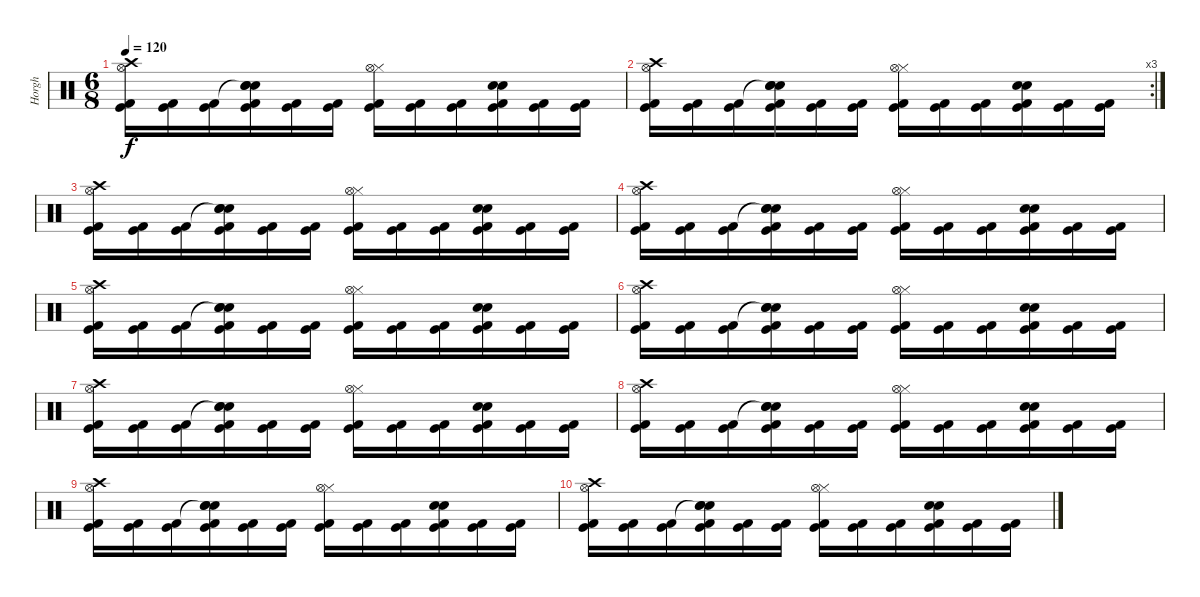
\track ("Horgh" "Horgh") {instrument percussion}
\staff {score}
\articulation defaults
\ts (6 8)
\tempo 120
\clef neutral
\ks c
("Crash high (hit)" "Hi-Hat (open)" "Kick (hit) 2" "Kick (hit)").16{dy f} ("Kick (hit) 2" "Kick (hit)").16 ("Kick (hit) 2" "Kick (hit)").16 ("Snare (hit)"{t} "Snare (hit) 2" "Electric Snare (hit)" "Kick (hit) 2" "Kick (hit)").16 ("Kick (hit) 2" "Kick (hit)").16 ("Kick (hit) 2" "Kick (hit)").16 ("Hi-Hat (closed)" "Hi-Hat (open)" "Kick (hit) 2" "Kick (hit)").16 ("Kick (hit) 2" "Kick (hit)").16 ("Kick (hit) 2" "Kick (hit)").16 ("Snare (hit) 2" "Electric Snare (hit)" "Kick (hit) 2" "Kick (hit)").16 ("Kick (hit) 2" "Kick (hit)").16 ("Kick (hit) 2" "Kick (hit)").16 |
\rc 3
("Crash high (hit)" "Hi-Hat (open)" "Kick (hit) 2" "Kick (hit)").16 ("Kick (hit) 2" "Kick (hit)").16 ("Kick (hit) 2" "Kick (hit)").16 ("Snare (hit)"{t} "Snare (hit) 2" "Electric Snare (hit)" "Kick (hit) 2" "Kick (hit)").16 ("Kick (hit) 2" "Kick (hit)").16 ("Kick (hit) 2" "Kick (hit)").16 ("Hi-Hat (closed)" "Hi-Hat (open)" "Kick (hit) 2" "Kick (hit)").16 ("Kick (hit) 2" "Kick (hit)").16 ("Kick (hit) 2" "Kick (hit)").16 ("Snare (hit) 2" "Electric Snare (hit)" "Kick (hit) 2" "Kick (hit)").16 ("Kick (hit) 2" "Kick (hit)").16 ("Kick (hit) 2" "Kick (hit)").16 |
("Crash high (hit)" "Hi-Hat (open)" "Kick (hit) 2" "Kick (hit)").16{volume 7} ("Kick (hit) 2" "Kick (hit)").16 ("Kick (hit) 2" "Kick (hit)").16 ("Snare (hit)"{t} "Snare (hit) 2" "Electric Snare (hit)" "Kick (hit) 2" "Kick (hit)").16 ("Kick (hit) 2" "Kick (hit)").16 ("Kick (hit) 2" "Kick (hit)").16 ("Hi-Hat (closed)" "Hi-Hat (open)" "Kick (hit) 2" "Kick (hit)").16 ("Kick (hit) 2" "Kick (hit)").16 ("Kick (hit) 2" "Kick (hit)").16 ("Snare (hit) 2" "Electric Snare (hit)" "Kick (hit) 2" "Kick (hit)").16 ("Kick (hit) 2" "Kick (hit)").16 ("Kick (hit) 2" "Kick (hit)").16 |
("Crash high (hit)" "Hi-Hat (open)" "Kick (hit) 2" "Kick (hit)").16 ("Kick (hit) 2" "Kick (hit)").16 ("Kick (hit) 2" "Kick (hit)").16 ("Snare (hit)"{t} "Snare (hit) 2" "Electric Snare (hit)" "Kick (hit) 2" "Kick (hit)").16 ("Kick (hit) 2" "Kick (hit)").16 ("Kick (hit) 2" "Kick (hit)").16 ("Hi-Hat (closed)" "Hi-Hat (open)" "Kick (hit) 2" "Kick (hit)").16 ("Kick (hit) 2" "Kick (hit)").16 ("Kick (hit) 2" "Kick (hit)").16 ("Snare (hit) 2" "Electric Snare (hit)" "Kick (hit) 2" "Kick (hit)").16 ("Kick (hit) 2" "Kick (hit)").16 ("Kick (hit) 2" "Kick (hit)").16 |
("Crash high (hit)" "Hi-Hat (open)" "Kick (hit) 2" "Kick (hit)").16{volume 4} ("Kick (hit) 2" "Kick (hit)").16 ("Kick (hit) 2" "Kick (hit)").16 ("Snare (hit)"{t} "Snare (hit) 2" "Electric Snare (hit)" "Kick (hit) 2" "Kick (hit)").16 ("Kick (hit) 2" "Kick (hit)").16 ("Kick (hit) 2" "Kick (hit)").16 ("Hi-Hat (closed)" "Hi-Hat (open)" "Kick (hit) 2" "Kick (hit)").16 ("Kick (hit) 2" "Kick (hit)").16 ("Kick (hit) 2" "Kick (hit)").16 ("Snare (hit) 2" "Electric Snare (hit)" "Kick (hit) 2" "Kick (hit)").16 ("Kick (hit) 2" "Kick (hit)").16 ("Kick (hit) 2" "Kick (hit)").16 |
("Crash high (hit)" "Hi-Hat (open)" "Kick (hit) 2" "Kick (hit)").16 ("Kick (hit) 2" "Kick (hit)").16 ("Kick (hit) 2" "Kick (hit)").16 ("Snare (hit)"{t} "Snare (hit) 2" "Electric Snare (hit)" "Kick (hit) 2" "Kick (hit)").16 ("Kick (hit) 2" "Kick (hit)").16 ("Kick (hit) 2" "Kick (hit)").16 ("Hi-Hat (closed)" "Hi-Hat (open)" "Kick (hit) 2" "Kick (hit)").16 ("Kick (hit) 2" "Kick (hit)").16 ("Kick (hit) 2" "Kick (hit)").16 ("Snare (hit) 2" "Electric Snare (hit)" "Kick (hit) 2" "Kick (hit)").16 ("Kick (hit) 2" "Kick (hit)").16 ("Kick (hit) 2" "Kick (hit)").16 |
("Crash high (hit)" "Hi-Hat (open)" "Kick (hit) 2" "Kick (hit)").16{volume 0} ("Kick (hit) 2" "Kick (hit)").16 ("Kick (hit) 2" "Kick (hit)").16 ("Snare (hit)"{t} "Snare (hit) 2" "Electric Snare (hit)" "Kick (hit) 2" "Kick (hit)").16 ("Kick (hit) 2" "Kick (hit)").16 ("Kick (hit) 2" "Kick (hit)").16 ("Hi-Hat (closed)" "Hi-Hat (open)" "Kick (hit) 2" "Kick (hit)").16 ("Kick (hit) 2" "Kick (hit)").16 ("Kick (hit) 2" "Kick (hit)").16 ("Snare (hit) 2" "Electric Snare (hit)" "Kick (hit) 2" "Kick (hit)").16 ("Kick (hit) 2" "Kick (hit)").16 ("Kick (hit) 2" "Kick (hit)").16 |
("Crash high (hit)" "Hi-Hat (open)" "Kick (hit) 2" "Kick (hit)").16 ("Kick (hit) 2" "Kick (hit)").16 ("Kick (hit) 2" "Kick (hit)").16 ("Snare (hit)"{t} "Snare (hit) 2" "Electric Snare (hit)" "Kick (hit) 2" "Kick (hit)").16 ("Kick (hit) 2" "Kick (hit)").16 ("Kick (hit) 2" "Kick (hit)").16 ("Hi-Hat (closed)" "Hi-Hat (open)" "Kick (hit) 2" "Kick (hit)").16 ("Kick (hit) 2" "Kick (hit)").16 ("Kick (hit) 2" "Kick (hit)").16 ("Snare (hit) 2" "Electric Snare (hit)" "Kick (hit) 2" "Kick (hit)").16 ("Kick (hit) 2" "Kick (hit)").16 ("Kick (hit) 2" "Kick (hit)").16 |
("Crash high (hit)" "Hi-Hat (open)" "Kick (hit) 2" "Kick (hit)").16 ("Kick (hit) 2" "Kick (hit)").16 ("Kick (hit) 2" "Kick (hit)").16 ("Snare (hit)"{t} "Snare (hit) 2" "Electric Snare (hit)" "Kick (hit) 2" "Kick (hit)").16 ("Kick (hit) 2" "Kick (hit)").16 ("Kick (hit) 2" "Kick (hit)").16 ("Hi-Hat (closed)" "Hi-Hat (open)" "Kick (hit) 2" "Kick (hit)").16 ("Kick (hit) 2" "Kick (hit)").16 ("Kick (hit) 2" "Kick (hit)").16 ("Snare (hit) 2" "Electric Snare (hit)" "Kick (hit) 2" "Kick (hit)").16 ("Kick (hit) 2" "Kick (hit)").16 ("Kick (hit) 2" "Kick (hit)").16 |
("Crash high (hit)" "Hi-Hat (open)" "Kick (hit) 2" "Kick (hit)").16 ("Kick (hit) 2" "Kick (hit)").16 ("Kick (hit) 2" "Kick (hit)").16 ("Snare (hit)"{t} "Snare (hit) 2" "Electric Snare (hit)" "Kick (hit) 2" "Kick (hit)").16 ("Kick (hit) 2" "Kick (hit)").16 ("Kick (hit) 2" "Kick (hit)").16 ("Hi-Hat (closed)" "Hi-Hat (open)" "Kick (hit) 2" "Kick (hit)").16 ("Kick (hit) 2" "Kick (hit)").16 ("Kick (hit) 2" "Kick (hit)").16 ("Snare (hit) 2" "Electric Snare (hit)" "Kick (hit) 2" "Kick (hit)").16 ("Kick (hit) 2" "Kick (hit)").16 ("Kick (hit) 2" "Kick (hit)").16
